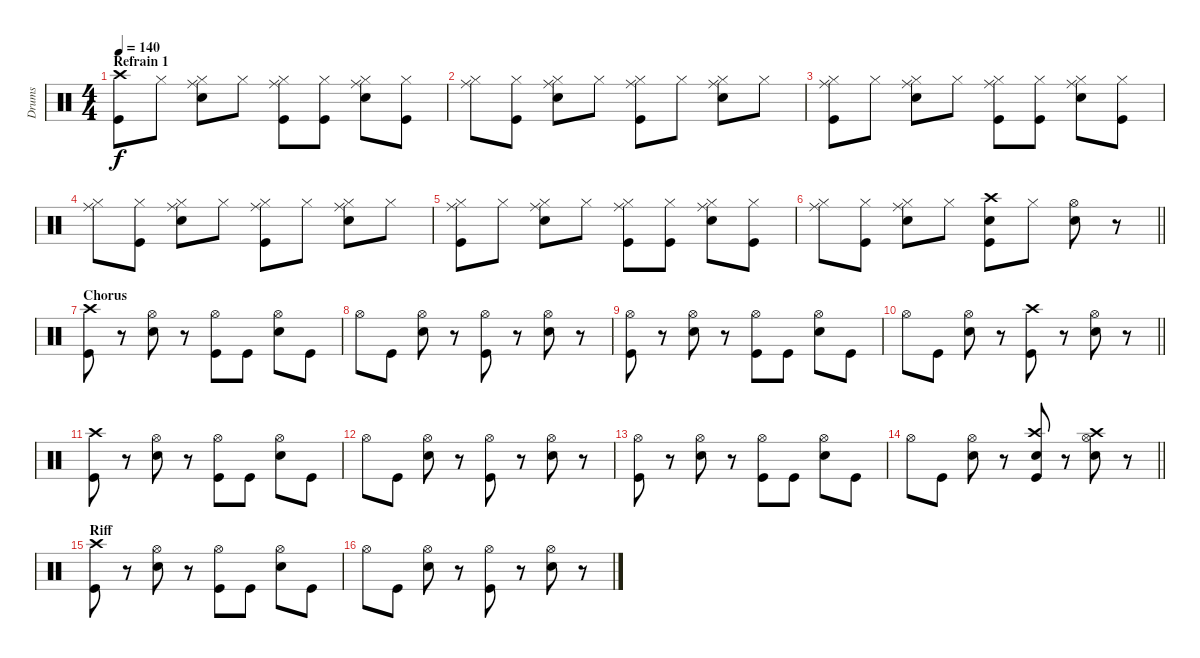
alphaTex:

\track ("Drums" "Drums") {instrument percussion}
\staff {score}
\articulation defaults
\ts (4 4)
\section ("" "Refrain 1")
\tempo 140
\clef neutral
\ks c
("Kick (hit)" "Crash high (hit)").8{dy f} "Hi-Hat (closed)".8 ("Electric Snare (hit)" "Hi-Hat (closed)" "Ride (middle)").8 "Hi-Hat (closed)".8 ("Kick (hit)" "Hi-Hat (closed)" "Ride (middle)").8 ("Kick (hit)" "Hi-Hat (closed)").8 ("Electric Snare (hit)" "Hi-Hat (closed)" "Ride (middle)").8 ("Kick (hit)" "Hi-Hat (closed)").8 |
("Hi-Hat (closed)" "Ride (middle)").8 ("Kick (hit)" "Hi-Hat (closed)").8 ("Electric Snare (hit)" "Hi-Hat (closed)" "Ride (middle)").8 "Hi-Hat (closed)".8 ("Kick (hit)" "Hi-Hat (closed)" "Ride (middle)").8 "Hi-Hat (closed)".8 ("Electric Snare (hit)" "Hi-Hat (closed)" "Ride (middle)").8 "Hi-Hat (closed)".8 |
("Kick (hit)" "Hi-Hat (closed)" "Ride (middle)").8 "Hi-Hat (closed)".8 ("Electric Snare (hit)" "Hi-Hat (closed)" "Ride (middle)").8 "Hi-Hat (closed)".8 ("Kick (hit)" "Hi-Hat (closed)" "Ride (middle)").8 ("Kick (hit)" "Hi-Hat (closed)").8 ("Electric Snare (hit)" "Hi-Hat (closed)" "Ride (middle)").8 ("Kick (hit)" "Hi-Hat (closed)").8 |
("Hi-Hat (closed)" "Ride (middle)").8 ("Kick (hit)" "Hi-Hat (closed)").8 ("Electric Snare (hit)" "Hi-Hat (closed)" "Ride (middle)").8 "Hi-Hat (closed)".8 ("Kick (hit)" "Hi-Hat (closed)" "Ride (middle)").8 "Hi-Hat (closed)".8 ("Electric Snare (hit)" "Hi-Hat (closed)" "Ride (middle)").8 "Hi-Hat (closed)".8 |
("Kick (hit)" "Hi-Hat (closed)" "Ride (middle)").8 "Hi-Hat (closed)".8 ("Electric Snare (hit)" "Hi-Hat (closed)" "Ride (middle)").8 "Hi-Hat (closed)".8 ("Kick (hit)" "Hi-Hat (closed)" "Ride (middle)").8 ("Kick (hit)" "Hi-Hat (closed)").8 ("Electric Snare (hit)" "Hi-Hat (closed)" "Ride (middle)").8 ("Kick (hit)" "Hi-Hat (closed)").8 |
\barLineRight lightlight
("Hi-Hat (closed)" "Ride (middle)").8 ("Kick (hit)" "Hi-Hat (closed)").8 ("Electric Snare (hit)" "Hi-Hat (closed)" "Ride (middle)").8 "Hi-Hat (closed)".8 ("Kick (hit)" "Electric Snare (hit)" "Crash high (hit)").8 "Hi-Hat (closed)".8 ("Electric Snare (hit)" "Hi-Hat (open)").8 r.8 |
\section ("" "Chorus")
("Kick (hit)" "Crash high (hit)").8 r.8 ("Electric Snare (hit)" "Hi-Hat (open)").8 r.8 ("Kick (hit)" "Hi-Hat (open)").8 "Kick (hit)".8 ("Electric Snare (hit)" "Hi-Hat (open)").8 "Kick (hit)".8 |
"Hi-Hat (open)".8 "Kick (hit)".8 ("Electric Snare (hit)" "Hi-Hat (open)").8 r.8 ("Kick (hit)" "Hi-Hat (open)").8 r.8 ("Electric Snare (hit)" "Hi-Hat (open)").8 r.8 |
("Kick (hit)" "Hi-Hat (open)").8 r.8 ("Electric Snare (hit)" "Hi-Hat (open)").8 r.8 ("Kick (hit)" "Hi-Hat (open)").8 "Kick (hit)".8 ("Electric Snare (hit)" "Hi-Hat (open)").8 "Kick (hit)".8 |
\barLineRight lightlight "Hi-Hat (open)".8 "Kick (hit)".8
("Electric Snare (hit)" "Hi-Hat (open)").8 r.8 ("Kick (hit)" "Crash high (hit)").8 r.8 ("Electric Snare (hit)" "Hi-Hat (open)").8 r.8 |
("Kick (hit)" "Crash high (hit)").8 r.8 ("Electric Snare (hit)" "Hi-Hat (open)").8 r.8 ("Kick (hit)" "Hi-Hat (open)").8 "Kick (hit)".8 ("Electric Snare (hit)" "Hi-Hat (open)").8 "Kick (hit)".8 |
"Hi-Hat (open)".8 "Kick (hit)".8 ("Electric Snare (hit)" "Hi-Hat (open)").8 r.8 ("Kick (hit)" "Hi-Hat (open)").8 r.8 ("Electric Snare (hit)" "Hi-Hat (open)").8 r.8 |
("Kick (hit)" "Hi-Hat (open)").8 r.8 ("Electric Snare (hit)" "Hi-Hat (open)").8 r.8 ("Kick (hit)" "Hi-Hat (open)").8 "Kick (hit)".8 ("Electric Snare (hit)" "Hi-Hat (open)").8 "Kick (hit)".8 |
\barLineRight lightlight "Hi-Hat (open)".8 "Kick (hit)".8
("Electric Snare (hit)" "Hi-Hat (open)").8 r.8 ("Kick (hit)" "Electric Snare (hit)" "Crash high (hit)").8 r.8 ("Electric Snare (hit)" "Hi-Hat (open)" "Crash high (hit)").8 r.8 |
\section ("" "Riff")
("Kick (hit)" "Crash high (hit)").8 r.8 ("Electric Snare (hit)" "Hi-Hat (open)").8 r.8 ("Kick (hit)" "Hi-Hat (open)").8 "Kick (hit)".8 ("Electric Snare (hit)" "Hi-Hat (open)").8 "Kick (hit)".8 |
"Hi-Hat (open)".8 "Kick (hit)".8 ("Electric Snare (hit)" "Hi-Hat (open)").8 r.8 ("Kick (hit)" "Hi-Hat (open)").8 r.8 ("Electric Snare (hit)" "Hi-Hat (open)").8 r.8
